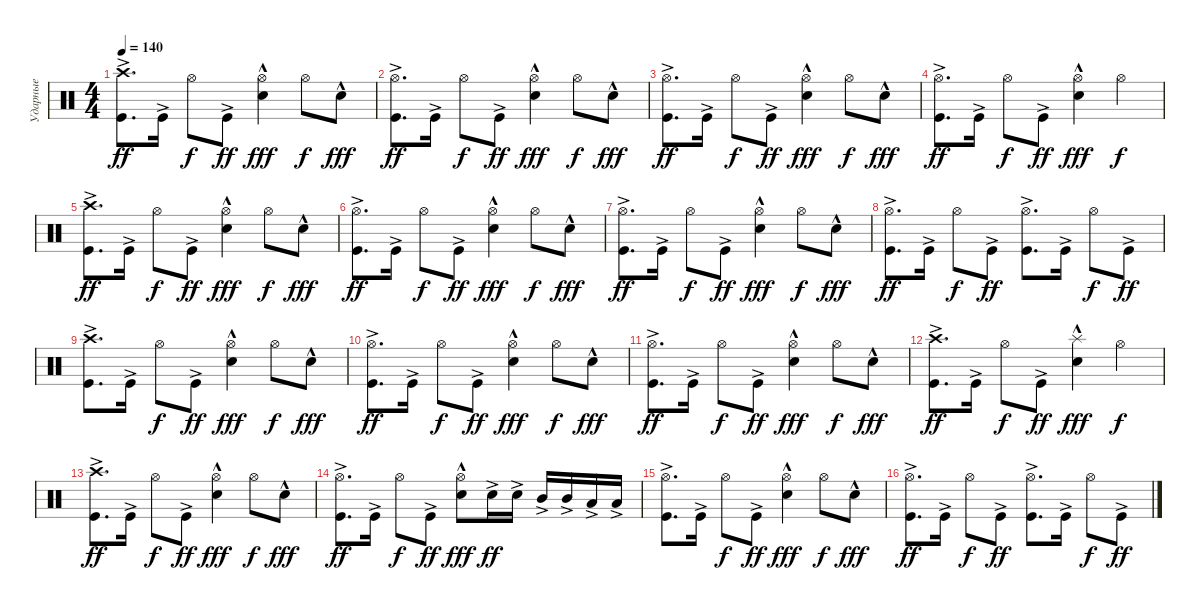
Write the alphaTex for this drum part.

\track ("Ударные" "Ударные") {instrument percussion}
\staff {score}
\articulation defaults
\ts (4 4)
\tempo 140
\clef neutral
\ks c
("Kick (hit)"{ac} "Crash high (hit)").8{d dy ff} "Kick (hit)"{ac}.16 "Hi-Hat (open)".8{dy f} "Kick (hit)"{ac}.8{dy ff} ("Electric Snare (hit)"{hac} "Hi-Hat (open)").4{dy fff} "Hi-Hat (open)".8{dy f} "Electric Snare (hit)"{hac}.8{dy fff} |
("Kick (hit)"{ac} "Hi-Hat (open)").8{d dy ff} "Kick (hit)"{ac}.16 "Hi-Hat (open)".8{dy f} "Kick (hit)"{ac}.8{dy ff} ("Electric Snare (hit)"{hac} "Hi-Hat (open)").4{dy fff} "Hi-Hat (open)".8{dy f} "Electric Snare (hit)"{hac}.8{dy fff} |
("Kick (hit)"{ac} "Hi-Hat (open)").8{d dy ff} "Kick (hit)"{ac}.16 "Hi-Hat (open)".8{dy f} "Kick (hit)"{ac}.8{dy ff} ("Electric Snare (hit)"{hac} "Hi-Hat (open)").4{dy fff} "Hi-Hat (open)".8{dy f} "Electric Snare (hit)"{hac}.8{dy fff} |
("Kick (hit)"{ac} "Hi-Hat (open)").8{d dy ff} "Kick (hit)"{ac}.16 "Hi-Hat (open)".8{dy f} "Kick (hit)"{ac}.8{dy ff} ("Electric Snare (hit)"{hac} "Hi-Hat (open)").4{dy fff} "Hi-Hat (open)".4{dy f} |
("Kick (hit)"{ac} "Crash high (hit)").8{d dy ff} "Kick (hit)"{ac}.16 "Hi-Hat (open)".8{dy f} "Kick (hit)"{ac}.8{dy ff} ("Electric Snare (hit)"{hac} "Hi-Hat (open)").4{dy fff} "Hi-Hat (open)".8{dy f} "Electric Snare (hit)"{hac}.8{dy fff} |
("Kick (hit)"{ac} "Hi-Hat (open)").8{d dy ff} "Kick (hit)"{ac}.16 "Hi-Hat (open)".8{dy f} "Kick (hit)"{ac}.8{dy ff} ("Electric Snare (hit)"{hac} "Hi-Hat (open)").4{dy fff} "Hi-Hat (open)".8{dy f} "Electric Snare (hit)"{hac}.8{dy fff} |
("Kick (hit)"{ac} "Hi-Hat (open)").8{d dy ff} "Kick (hit)"{ac}.16 "Hi-Hat (open)".8{dy f} "Kick (hit)"{ac}.8{dy ff} ("Electric Snare (hit)"{hac} "Hi-Hat (open)").4{dy fff} "Hi-Hat (open)".8{dy f} "Electric Snare (hit)"{hac}.8{dy fff} |
("Kick (hit)"{ac} "Hi-Hat (open)").8{d dy ff} "Kick (hit)"{ac}.16 "Hi-Hat (open)".8{dy f} "Kick (hit)"{ac}.8{dy ff} ("Kick (hit)"{ac} "Hi-Hat (open)").8{d} "Kick (hit)"{ac}.16 "Hi-Hat (open)".8{dy f} "Kick (hit)"{ac}.8{dy ff} |
("Kick (hit)"{ac} "Crash high (hit)").8{d} "Kick (hit)"{ac}.16 "Hi-Hat (open)".8{dy f} "Kick (hit)"{ac}.8{dy ff} ("Electric Snare (hit)"{hac} "Hi-Hat (open)").4{dy fff} "Hi-Hat (open)".8{dy f} "Electric Snare (hit)"{hac}.8{dy fff} |
("Kick (hit)"{ac} "Hi-Hat (open)").8{d dy ff} "Kick (hit)"{ac}.16 "Hi-Hat (open)".8{dy f} "Kick (hit)"{ac}.8{dy ff} ("Electric Snare (hit)"{hac} "Hi-Hat (open)").4{dy fff} "Hi-Hat (open)".8{dy f} "Electric Snare (hit)"{hac}.8{dy fff} |
("Kick (hit)"{ac} "Hi-Hat (open)").8{d dy ff} "Kick (hit)"{ac}.16 "Hi-Hat (open)".8{dy f} "Kick (hit)"{ac}.8{dy ff} ("Electric Snare (hit)"{hac} "Hi-Hat (open)").4{dy fff} "Hi-Hat (open)".8{dy f} "Electric Snare (hit)"{hac}.8{dy fff} |
("Kick (hit)"{ac} "Crash high (hit)").8{d dy ff} "Kick (hit)"{ac}.16 "Hi-Hat (open)".8{dy f} "Kick (hit)"{ac}.8{dy ff} ("Electric Snare (hit)"{hac} "Splash (hit)").4{dy fff} "Hi-Hat (open)".4{dy f} |
("Kick (hit)"{ac} "Crash high (hit)").8{d dy ff} "Kick (hit)"{ac}.16 "Hi-Hat (open)".8{dy f} "Kick (hit)"{ac}.8{dy ff} ("Electric Snare (hit)"{hac} "Hi-Hat (open)").4{dy fff} "Hi-Hat (open)".8{dy f} "Electric Snare (hit)"{hac}.8{dy fff} |
("Kick (hit)"{ac} "Hi-Hat (open)").8{d dy ff} "Kick (hit)"{ac}.16 "Hi-Hat (open)".8{dy f} "Kick (hit)"{ac}.8{dy ff} ("Electric Snare (hit)"{hac} "Hi-Hat (open)").8{dy fff} "Electric Snare (hit)"{ac}.16{dy ff} "Electric Snare (hit)"{ac}.16 "Mid Tom (hit)"{ac}.16 "Mid Tom (hit)"{ac}.16 "Low Tom (hit)"{ac}.16 "Low Tom (hit)"{ac}.16 |
("Kick (hit)"{ac} "Hi-Hat (open)").8{d} "Kick (hit)"{ac}.16 "Hi-Hat (open)".8{dy f} "Kick (hit)"{ac}.8{dy ff} ("Electric Snare (hit)"{hac} "Hi-Hat (open)").4{dy fff} "Hi-Hat (open)".8{dy f} "Electric Snare (hit)"{hac}.8{dy fff} |
("Kick (hit)"{ac} "Hi-Hat (open)").8{d dy ff} "Kick (hit)"{ac}.16 "Hi-Hat (open)".8{dy f} "Kick (hit)"{ac}.8{dy ff} ("Kick (hit)"{ac} "Hi-Hat (open)").8{d} "Kick (hit)"{ac}.16 "Hi-Hat (open)".8{dy f} "Kick (hit)"{ac}.8{dy ff}
